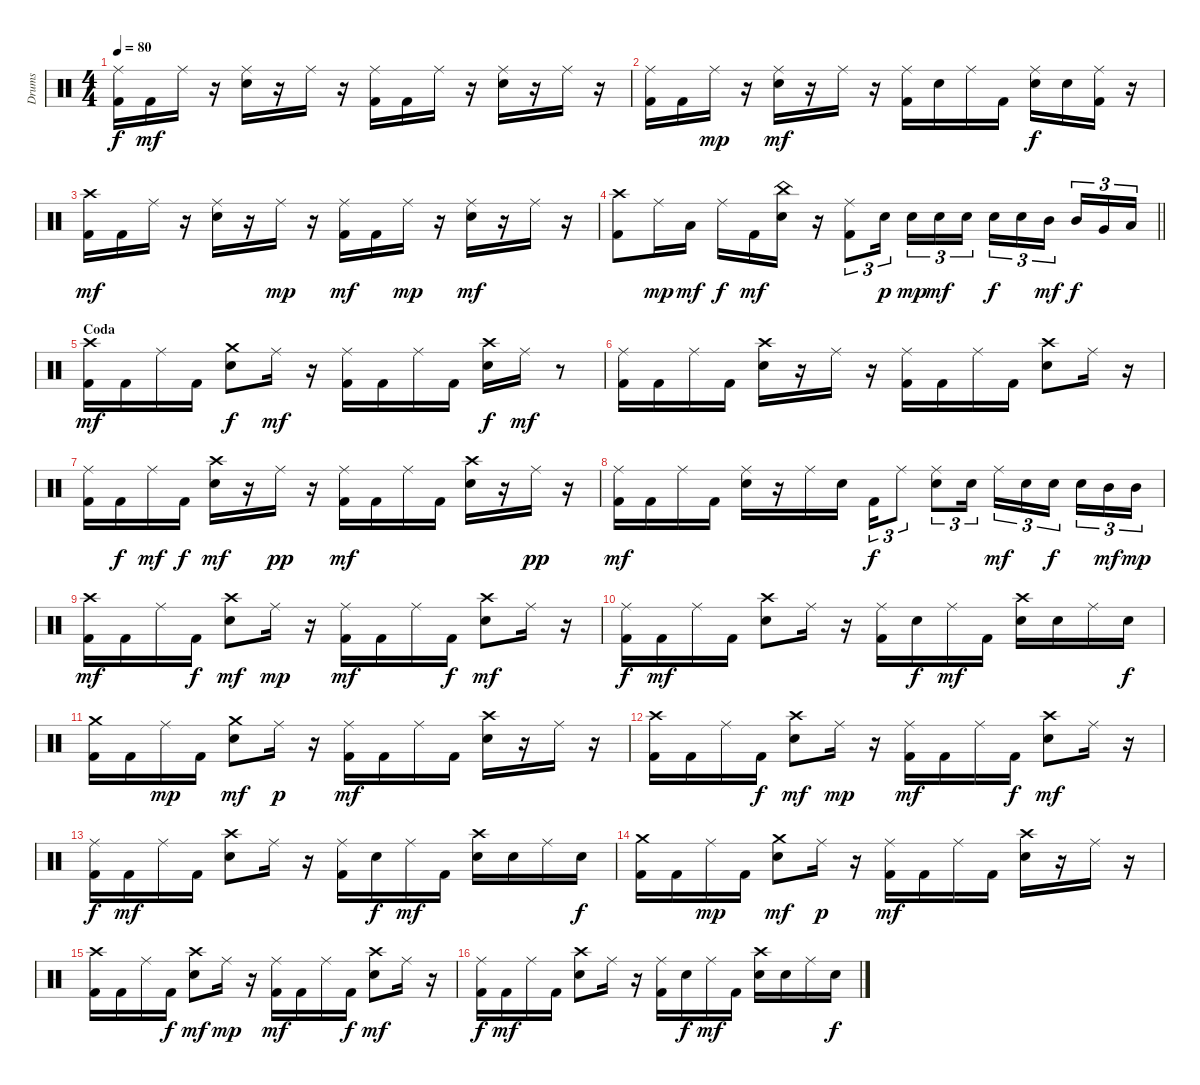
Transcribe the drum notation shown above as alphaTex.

\track ("Drums" "Drums") {instrument percussion}
\staff {score}
\articulation defaults
\ts (4 4)
\tempo 80
\clef neutral
\ks c
("Kick (hit) 2" "Ride (middle)").16{dy f} "Kick (hit) 2".16{dy mf} "Ride (middle)".16 r.16 ("Snare (hit) 2" "Ride (middle)").16 r.16 "Ride (middle)".16 r.16 ("Kick (hit) 2" "Ride (middle)").16 "Kick (hit) 2".16 "Ride (middle)".16 r.16 ("Snare (hit) 2" "Ride (middle)").16 r.16 "Ride (middle)".16 r.16 |
("Kick (hit) 2" "Ride (middle)").16 "Kick (hit) 2".16 "Ride (middle)".16{dy mp} r.16 ("Snare (hit) 2" "Ride (middle)").16{dy mf} r.16 "Ride (middle)".16 r.16 ("Kick (hit) 2" "Ride (middle)").16 "Snare (hit) 2".16 "Ride (middle)".16 "Kick (hit) 2".16 ("Snare (hit) 2" "Ride (middle)").16{dy f} "Snare (hit) 2".16 ("Kick (hit) 2" "Ride (middle)").16 r.16 |
("Kick (hit) 2" "Crash high (hit)").16{dy mf} "Kick (hit) 2".16 "Ride (middle)".16 r.16 ("Snare (hit) 2" "Ride (middle)").16 r.16 "Ride (middle)".16{dy mp} r.16 ("Kick (hit) 2" "Ride (middle)").16{dy mf} "Kick (hit) 2".16 "Ride (middle)".16{dy mp} r.16 ("Snare (hit) 2" "Ride (middle)").16{dy mf} r.16 "Ride (middle)".16 r.16 |
\barLineRight lightlight
("Kick (hit) 2" "Crash high (hit)").8 "Ride (middle)".16{dy mp} "Low Tom (hit)".16{dy mf} "Ride (middle)".16{dy f} "Kick (hit) 2".16{dy mf} ("Snare (hit) 2" "China (hit)").16 r.16 ("Kick (hit) 2" "Ride (middle)").8{tu (3 2)} "Snare (hit) 2".16{tu (3 2) dy p beam splitsecondary} "Snare (hit) 2".16{tu (3 2) dy mp} "Snare (hit) 2".16{tu (3 2) dy mf} "Snare (hit) 2".16{tu (3 2)} "Snare (hit) 2".16{tu (3 2) dy f} "Snare (hit) 2".16{tu (3 2)} "Mid Tom (hit)".16{tu (3 2) dy mf beam splitsecondary} "Mid Tom (hit)".16{tu (3 2) dy f} "Very Low Tom (hit)".16{tu (3 2)} "Low Floor Tom (hit)".16{tu (3 2)} |
\section ("" "Coda")
("Kick (hit) 2" "Crash high (hit)").16{dy mf} "Kick (hit) 2".16 "Ride (middle)".16 "Kick (hit) 2".16 ("Snare (hit) 2" "Crash medium (hit)").8{dy f} "Ride (middle)".16{dy mf} r.16 ("Kick (hit) 2" "Ride (middle)").16 "Kick (hit) 2".16 "Ride (middle)".16 "Kick (hit) 2".16 ("Snare (hit) 2" "Crash high (hit)").16{dy f} "Ride (middle)".16{dy mf} r.8 |
("Kick (hit) 2" "Ride (middle)").16 "Kick (hit) 2".16 "Ride (middle)".16 "Kick (hit) 2".16 ("Snare (hit) 2" "Crash high (hit)").16 r.16 "Ride (middle)".16 r.16 ("Kick (hit) 2" "Ride (middle)").16 "Kick (hit) 2".16 "Ride (middle)".16 "Kick (hit) 2".16 ("Snare (hit) 2" "Crash high (hit)").8 "Ride (middle)".16 r.16 |
("Kick (hit) 2" "Ride (middle)").16 "Kick (hit) 2".16{dy f} "Ride (middle)".16{dy mf} "Kick (hit) 2".16{dy f} ("Snare (hit) 2" "Crash high (hit)").16{dy mf} r.16 "Ride (middle)".16{dy pp} r.16 ("Kick (hit) 2" "Ride (middle)").16{dy mf} "Kick (hit) 2".16 "Ride (middle)".16 "Kick (hit) 2".16 ("Snare (hit) 2" "Crash high (hit)").16 r.16 "Ride (middle)".16{dy pp} r.16 |
("Kick (hit) 2" "Ride (middle)").16{dy mf} "Kick (hit) 2".16 "Ride (middle)".16 "Kick (hit) 2".16 ("Snare (hit) 2" "Ride (middle)").16 r.16 "Ride (middle)".16 "Snare (hit) 2".16 "Kick (hit) 2".16{tu (3 2) dy f} "Ride (middle)".8{tu (3 2)} ("Snare (hit) 2" "Ride (middle)").8{tu (3 2)} "Snare (hit) 2".16{tu (3 2)} "Ride (middle)".16{tu (3 2) dy mf} "Snare (hit) 2".16{tu (3 2)} "Snare (hit) 2".16{tu (3 2) dy f beam splitsecondary} "Snare (hit) 2".16{tu (3 2)} "Mid Tom (hit)".16{tu (3 2) dy mf} "Mid Tom (hit)".16{tu (3 2) dy mp} |
("Kick (hit) 2" "Crash high (hit)").16{dy mf} "Kick (hit) 2".16 "Ride (middle)".16 "Kick (hit) 2".16{dy f} ("Snare (hit) 2" "Crash high (hit)").8{dy mf} "Ride (middle)".16{dy mp} r.16 ("Kick (hit) 2" "Ride (middle)").16{dy mf} "Kick (hit) 2".16 "Ride (middle)".16 "Kick (hit) 2".16{dy f} ("Snare (hit) 2" "Crash high (hit)").8{dy mf} "Ride (middle)".16 r.16 |
("Kick (hit) 2" "Ride (middle)").16{dy f} "Kick (hit) 2".16{dy mf} "Ride (middle)".16 "Kick (hit) 2".16 ("Snare (hit) 2" "Crash high (hit)").8 "Ride (middle)".16 r.16 ("Kick (hit) 2" "Ride (middle)").16 "Snare (hit) 2".16{dy f} "Ride (middle)".16{dy mf} "Kick (hit) 2".16 ("Snare (hit) 2" "Crash high (hit)").16 "Snare (hit) 2".16 "Ride (middle)".16 "Snare (hit) 2".16{dy f} |
("Kick (hit) 2" "Crash medium (hit)").16 "Kick (hit) 2".16 "Ride (middle)".16{dy mp} "Kick (hit) 2".16 ("Snare (hit) 2" "Crash medium (hit)").8{dy mf} "Ride (middle)".16{dy p} r.16 ("Kick (hit) 2" "Ride (middle)").16{dy mf} "Kick (hit) 2".16 "Ride (middle)".16 "Kick (hit) 2".16 ("Snare (hit) 2" "Crash high (hit)").16 r.16 "Ride (middle)".16 r.16 |
("Kick (hit) 2" "Crash high (hit)").16 "Kick (hit) 2".16 "Ride (middle)".16 "Kick (hit) 2".16{dy f} ("Snare (hit) 2" "Crash high (hit)").8{dy mf} "Ride (middle)".16{dy mp} r.16 ("Kick (hit) 2" "Ride (middle)").16{dy mf} "Kick (hit) 2".16 "Ride (middle)".16 "Kick (hit) 2".16{dy f} ("Snare (hit) 2" "Crash high (hit)").8{dy mf} "Ride (middle)".16 r.16 |
("Kick (hit) 2" "Ride (middle)").16{dy f} "Kick (hit) 2".16{dy mf} "Ride (middle)".16 "Kick (hit) 2".16 ("Snare (hit) 2" "Crash high (hit)").8 "Ride (middle)".16 r.16 ("Kick (hit) 2" "Ride (middle)").16 "Snare (hit) 2".16{dy f} "Ride (middle)".16{dy mf} "Kick (hit) 2".16 ("Snare (hit) 2" "Crash high (hit)").16 "Snare (hit) 2".16 "Ride (middle)".16 "Snare (hit) 2".16{dy f} |
("Kick (hit) 2" "Crash medium (hit)").16 "Kick (hit) 2".16 "Ride (middle)".16{dy mp} "Kick (hit) 2".16 ("Snare (hit) 2" "Crash medium (hit)").8{dy mf} "Ride (middle)".16{dy p} r.16 ("Kick (hit) 2" "Ride (middle)").16{dy mf} "Kick (hit) 2".16 "Ride (middle)".16 "Kick (hit) 2".16 ("Snare (hit) 2" "Crash high (hit)").16 r.16 "Ride (middle)".16 r.16 |
("Kick (hit) 2" "Crash high (hit)").16 "Kick (hit) 2".16 "Ride (middle)".16 "Kick (hit) 2".16{dy f} ("Snare (hit) 2" "Crash high (hit)").8{dy mf} "Ride (middle)".16{dy mp} r.16 ("Kick (hit) 2" "Ride (middle)").16{dy mf} "Kick (hit) 2".16 "Ride (middle)".16 "Kick (hit) 2".16{dy f} ("Snare (hit) 2" "Crash high (hit)").8{dy mf} "Ride (middle)".16 r.16 |
("Kick (hit) 2" "Ride (middle)").16{dy f} "Kick (hit) 2".16{dy mf} "Ride (middle)".16 "Kick (hit) 2".16 ("Snare (hit) 2" "Crash high (hit)").8 "Ride (middle)".16 r.16 ("Kick (hit) 2" "Ride (middle)").16 "Snare (hit) 2".16{dy f} "Ride (middle)".16{dy mf} "Kick (hit) 2".16 ("Snare (hit) 2" "Crash high (hit)").16 "Snare (hit) 2".16 "Ride (middle)".16 "Snare (hit) 2".16{dy f}
